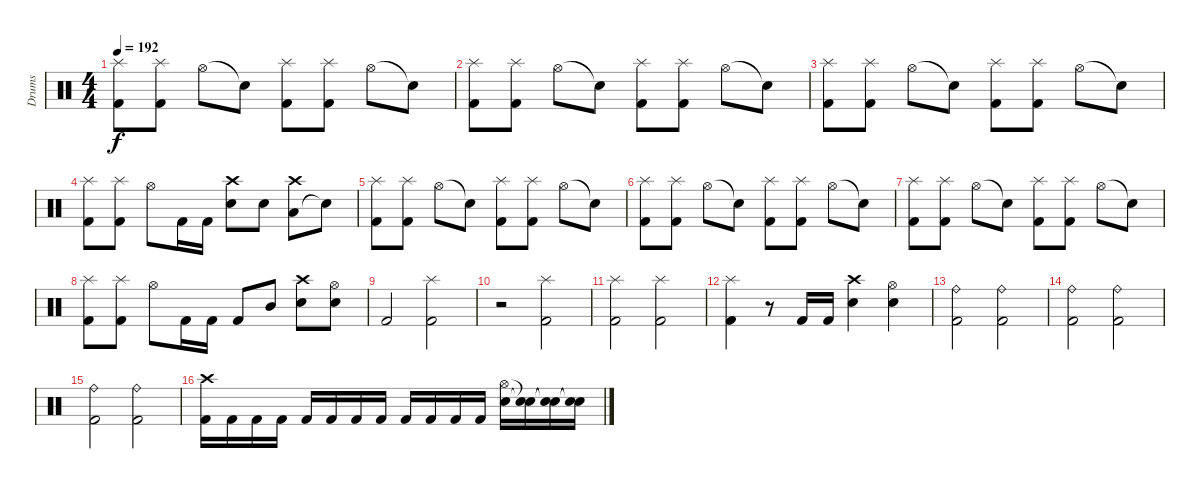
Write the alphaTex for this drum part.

\track ("Drums" "Drums") {instrument percussion}
\staff {score}
\articulation defaults
\ts (4 4)
\tempo 192
\clef neutral
\ks c
("Kick (hit) 2" "Splash (hit)").8{dy f} ("Kick (hit) 2" "Splash (hit)").8 "Hi-Hat (open)".8 "Snare (hit)"{t}.8 ("Kick (hit) 2" "Splash (hit)").8 ("Kick (hit) 2" "Splash (hit)").8 "Hi-Hat (open)".8 "Snare (hit)"{t}.8 |
("Kick (hit) 2" "Splash (hit)").8 ("Kick (hit) 2" "Splash (hit)").8 "Hi-Hat (open)".8 "Snare (hit)"{t}.8 ("Kick (hit) 2" "Splash (hit)").8 ("Kick (hit) 2" "Splash (hit)").8 "Hi-Hat (open)".8 "Snare (hit)"{t}.8 |
("Kick (hit) 2" "Splash (hit)").8 ("Kick (hit) 2" "Splash (hit)").8 "Hi-Hat (open)".8 "Snare (hit)"{t}.8 ("Kick (hit) 2" "Splash (hit)").8 ("Kick (hit) 2" "Splash (hit)").8 "Hi-Hat (open)".8 "Snare (hit)"{t}.8 |
("Kick (hit) 2" "Splash (hit)").8 ("Kick (hit) 2" "Splash (hit)").8 "Hi-Hat (open)".8 "Kick (hit) 2".16 "Kick (hit) 2".16 ("Electric Snare (hit)" "Crash high (hit)").8 "Electric Snare (hit)".8 ("Low Tom (hit)" "Crash high (hit)").8 "Snare (hit)"{t}.8 |
("Kick (hit) 2" "Splash (hit)").8 ("Kick (hit) 2" "Splash (hit)").8 "Hi-Hat (open)".8 "Snare (hit)"{t}.8 ("Kick (hit) 2" "Splash (hit)").8 ("Kick (hit) 2" "Splash (hit)").8 "Hi-Hat (open)".8 "Snare (hit)"{t}.8 |
("Kick (hit) 2" "Splash (hit)").8 ("Kick (hit) 2" "Splash (hit)").8 "Hi-Hat (open)".8 "Snare (hit)"{t}.8 ("Kick (hit) 2" "Splash (hit)").8 ("Kick (hit) 2" "Splash (hit)").8 "Hi-Hat (open)".8 "Snare (hit)"{t}.8 |
("Kick (hit) 2" "Splash (hit)").8 ("Kick (hit) 2" "Splash (hit)").8 "Hi-Hat (open)".8 "Snare (hit)"{t}.8 ("Kick (hit) 2" "Splash (hit)").8 ("Kick (hit) 2" "Splash (hit)").8 "Hi-Hat (open)".8 "Snare (hit)"{t}.8 |
("Kick (hit) 2" "Splash (hit)").8 ("Kick (hit) 2" "Splash (hit)").8 "Hi-Hat (open)".8 "Kick (hit) 2".16 "Kick (hit) 2".16 "Kick (hit) 2".8 "Mid Tom (hit)".8 ("Electric Snare (hit)" "Crash high (hit)").8 ("Electric Snare (hit)" "Hi-Hat (open)").8 |
"Kick (hit) 2".2 ("Kick (hit) 2" "Splash (hit)").2 |
r.2 ("Kick (hit) 2" "Splash (hit)").2 |
("Kick (hit) 2" "Splash (hit)").2 ("Kick (hit) 2" "Splash (hit)").2 |
("Kick (hit) 2" "Splash (hit)").4 r.8 "Kick (hit) 2".16 "Kick (hit) 2".16 ("Electric Snare (hit)" "Crash high (hit)").4 ("Snare (hit) 2" "Hi-Hat (open)").4 |
("Kick (hit) 2" "Ride (bell)").2 ("Kick (hit) 2" "Ride (bell)").2 |
("Kick (hit) 2" "Ride (bell)").2 ("Kick (hit) 2" "Ride (bell)").2 |
("Kick (hit) 2" "Ride (bell)").2 ("Kick (hit) 2" "Ride (bell)").2 |
("Kick (hit) 2" "Crash high (hit)").16 "Kick (hit) 2".16 "Kick (hit) 2".16 "Kick (hit) 2".16 "Kick (hit) 2".16 "Kick (hit) 2".16 "Kick (hit) 2".16 "Kick (hit) 2".16 "Kick (hit) 2".16 "Kick (hit) 2".16 "Kick (hit) 2".16 "Kick (hit) 2".16 ("Electric Snare (hit)" "Hi-Hat (open)").16 ("Snare (hit)"{t} "Snare (hit)"{t}).16 ("Snare (hit)"{t} "Snare (hit)"{t}).16 ("Snare (hit)"{t} "Snare (hit)"{t}).16
